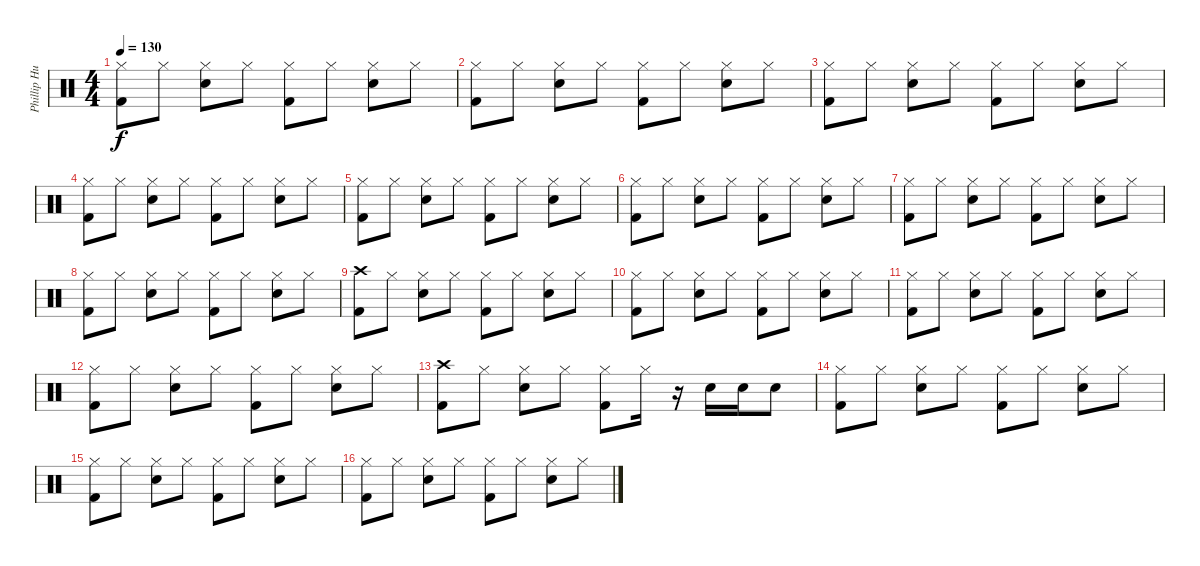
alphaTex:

\track ("Phillip Hungh" "Phillip Hu") {instrument percussion}
\staff {score}
\articulation defaults
\ts (4 4)
\tempo 130
\clef neutral
\ks c
("Hi-Hat (closed)" "Kick (hit) 2").8{dy f} "Hi-Hat (closed)".8 ("Hi-Hat (closed)" "Snare (hit) 2").8 "Hi-Hat (closed)".8 ("Hi-Hat (closed)" "Kick (hit) 2").8 "Hi-Hat (closed)".8 ("Hi-Hat (closed)" "Snare (hit) 2").8 "Hi-Hat (closed)".8 |
("Hi-Hat (closed)" "Kick (hit) 2").8 "Hi-Hat (closed)".8 ("Hi-Hat (closed)" "Snare (hit) 2").8 "Hi-Hat (closed)".8 ("Hi-Hat (closed)" "Kick (hit) 2").8 "Hi-Hat (closed)".8 ("Hi-Hat (closed)" "Snare (hit) 2").8 "Hi-Hat (closed)".8 |
("Hi-Hat (closed)" "Kick (hit) 2").8 "Hi-Hat (closed)".8 ("Hi-Hat (closed)" "Snare (hit) 2").8 "Hi-Hat (closed)".8 ("Hi-Hat (closed)" "Kick (hit) 2").8 "Hi-Hat (closed)".8 ("Hi-Hat (closed)" "Snare (hit) 2").8 "Hi-Hat (closed)".8 |
("Hi-Hat (closed)" "Kick (hit) 2").8 "Hi-Hat (closed)".8 ("Hi-Hat (closed)" "Snare (hit) 2").8 "Hi-Hat (closed)".8 ("Hi-Hat (closed)" "Kick (hit) 2").8 "Hi-Hat (closed)".8 ("Hi-Hat (closed)" "Snare (hit) 2").8 "Hi-Hat (closed)".8 |
("Hi-Hat (closed)" "Kick (hit) 2").8 "Hi-Hat (closed)".8 ("Hi-Hat (closed)" "Snare (hit) 2").8 "Hi-Hat (closed)".8 ("Hi-Hat (closed)" "Kick (hit) 2").8 "Hi-Hat (closed)".8 ("Hi-Hat (closed)" "Snare (hit) 2").8 "Hi-Hat (closed)".8 |
("Hi-Hat (closed)" "Kick (hit) 2").8 "Hi-Hat (closed)".8 ("Hi-Hat (closed)" "Snare (hit) 2").8 "Hi-Hat (closed)".8 ("Hi-Hat (closed)" "Kick (hit) 2").8 "Hi-Hat (closed)".8 ("Hi-Hat (closed)" "Snare (hit) 2").8 "Hi-Hat (closed)".8 |
("Hi-Hat (closed)" "Kick (hit) 2").8 "Hi-Hat (closed)".8 ("Hi-Hat (closed)" "Snare (hit) 2").8 "Hi-Hat (closed)".8 ("Hi-Hat (closed)" "Kick (hit) 2").8 "Hi-Hat (closed)".8 ("Hi-Hat (closed)" "Snare (hit) 2").8 "Hi-Hat (closed)".8 |
("Hi-Hat (closed)" "Kick (hit) 2").8 "Hi-Hat (closed)".8 ("Hi-Hat (closed)" "Snare (hit) 2").8 "Hi-Hat (closed)".8 ("Hi-Hat (closed)" "Kick (hit) 2").8 "Hi-Hat (closed)".8 ("Hi-Hat (closed)" "Snare (hit) 2").8 "Hi-Hat (closed)".8 |
("Crash high (hit)" "Kick (hit) 2").8 "Hi-Hat (closed)".8 ("Hi-Hat (closed)" "Snare (hit) 2").8 "Hi-Hat (closed)".8 ("Hi-Hat (closed)" "Kick (hit) 2").8 "Hi-Hat (closed)".8 ("Hi-Hat (closed)" "Snare (hit) 2").8 "Hi-Hat (closed)".8 |
("Hi-Hat (closed)" "Kick (hit) 2").8 "Hi-Hat (closed)".8 ("Hi-Hat (closed)" "Snare (hit) 2").8 "Hi-Hat (closed)".8 ("Hi-Hat (closed)" "Kick (hit) 2").8 "Hi-Hat (closed)".8 ("Hi-Hat (closed)" "Snare (hit) 2").8 "Hi-Hat (closed)".8 |
("Hi-Hat (closed)" "Kick (hit) 2").8 "Hi-Hat (closed)".8 ("Hi-Hat (closed)" "Snare (hit) 2").8 "Hi-Hat (closed)".8 ("Hi-Hat (closed)" "Kick (hit) 2").8 "Hi-Hat (closed)".8 ("Hi-Hat (closed)" "Snare (hit) 2").8 "Hi-Hat (closed)".8 |
("Hi-Hat (closed)" "Kick (hit) 2").8 "Hi-Hat (closed)".8 ("Hi-Hat (closed)" "Snare (hit) 2").8 "Hi-Hat (closed)".8 ("Hi-Hat (closed)" "Kick (hit) 2").8 "Hi-Hat (closed)".8 ("Hi-Hat (closed)" "Snare (hit) 2").8 "Hi-Hat (closed)".8 |
("Crash high (hit)" "Kick (hit) 2").8 "Hi-Hat (closed)".8 ("Hi-Hat (closed)" "Snare (hit) 2").8 "Hi-Hat (closed)".8 ("Hi-Hat (closed)" "Kick (hit) 2").8 "Hi-Hat (closed)".16 r.16 "Snare (hit) 2".16 "Snare (hit) 2".16 "Snare (hit) 2".8 |
("Hi-Hat (closed)" "Kick (hit) 2").8 "Hi-Hat (closed)".8 ("Hi-Hat (closed)" "Snare (hit) 2").8 "Hi-Hat (closed)".8 ("Hi-Hat (closed)" "Kick (hit) 2").8 "Hi-Hat (closed)".8 ("Hi-Hat (closed)" "Snare (hit) 2").8 "Hi-Hat (closed)".8 |
("Hi-Hat (closed)" "Kick (hit) 2").8 "Hi-Hat (closed)".8 ("Hi-Hat (closed)" "Snare (hit) 2").8 "Hi-Hat (closed)".8 ("Hi-Hat (closed)" "Kick (hit) 2").8 "Hi-Hat (closed)".8 ("Hi-Hat (closed)" "Snare (hit) 2").8 "Hi-Hat (closed)".8 |
("Hi-Hat (closed)" "Kick (hit) 2").8 "Hi-Hat (closed)".8 ("Hi-Hat (closed)" "Snare (hit) 2").8 "Hi-Hat (closed)".8 ("Hi-Hat (closed)" "Kick (hit) 2").8 "Hi-Hat (closed)".8 ("Hi-Hat (closed)" "Snare (hit) 2").8 "Hi-Hat (closed)".8
